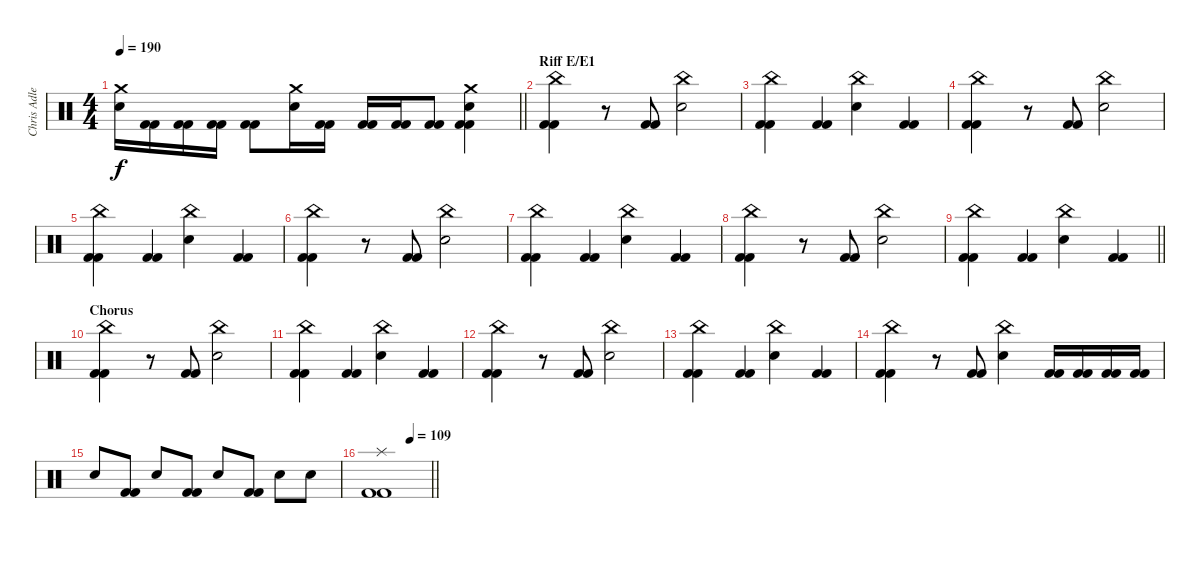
\track ("Chris Adler" "Chris Adle") {instrument percussion}
\staff {score}
\articulation defaults
\ts (4 4)
\tempo 190
\clef neutral
\barLineRight lightlight
\ks c
("Crash medium (hit)" "Snare (hit) 2").16{dy f} ("Kick (hit) 2" "Kick (hit) 2").16 ("Kick (hit) 2" "Kick (hit) 2").16 ("Kick (hit) 2" "Kick (hit) 2").16 ("Kick (hit) 2" "Kick (hit) 2").8 ("Crash medium (hit)" "Snare (hit) 2").16 ("Kick (hit) 2" "Kick (hit) 2").16 ("Kick (hit) 2" "Kick (hit) 2").16 ("Kick (hit) 2" "Kick (hit) 2").16 ("Kick (hit) 2" "Kick (hit) 2").8 ("Crash medium (hit)" "Snare (hit) 2" "Kick (hit) 2" "Kick (hit) 2").4 |
\section ("" "Riff E/E1")
("China (hit)" "Kick (hit) 2" "Kick (hit) 2").4 r.8 ("Kick (hit) 2" "Kick (hit) 2").8 ("China (hit)" "Snare (hit) 2").2 |
("China (hit)" "Kick (hit) 2" "Kick (hit) 2").4 ("Kick (hit) 2" "Kick (hit) 2").4 ("China (hit)" "Snare (hit) 2").4 ("Kick (hit) 2" "Kick (hit) 2").4 |
("China (hit)" "Kick (hit) 2" "Kick (hit) 2").4 r.8 ("Kick (hit) 2" "Kick (hit) 2").8 ("China (hit)" "Snare (hit) 2").2 |
("China (hit)" "Kick (hit) 2" "Kick (hit) 2").4 ("Kick (hit) 2" "Kick (hit) 2").4 ("China (hit)" "Snare (hit) 2").4 ("Kick (hit) 2" "Kick (hit) 2").4 |
("China (hit)" "Kick (hit) 2" "Kick (hit) 2").4 r.8 ("Kick (hit) 2" "Kick (hit) 2").8 ("China (hit)" "Snare (hit) 2").2 |
("China (hit)" "Kick (hit) 2" "Kick (hit) 2").4 ("Kick (hit) 2" "Kick (hit) 2").4 ("China (hit)" "Snare (hit) 2").4 ("Kick (hit) 2" "Kick (hit) 2").4 |
("China (hit)" "Kick (hit) 2" "Kick (hit) 2").4 r.8 ("Kick (hit) 2" "Kick (hit) 2").8 ("China (hit)" "Snare (hit) 2").2 |
\barLineRight lightlight
("China (hit)" "Kick (hit) 2" "Kick (hit) 2").4 ("Kick (hit) 2" "Kick (hit) 2").4 ("China (hit)" "Snare (hit) 2").4 ("Kick (hit) 2" "Kick (hit) 2").4 |
\section ("" "Chorus")
("China (hit)" "Kick (hit) 2" "Kick (hit) 2").4 r.8 ("Kick (hit) 2" "Kick (hit) 2").8 ("China (hit)" "Snare (hit) 2").2 |
("China (hit)" "Kick (hit) 2" "Kick (hit) 2").4 ("Kick (hit) 2" "Kick (hit) 2").4 ("China (hit)" "Snare (hit) 2").4 ("Kick (hit) 2" "Kick (hit) 2").4 |
("China (hit)" "Kick (hit) 2" "Kick (hit) 2").4 r.8 ("Kick (hit) 2" "Kick (hit) 2").8 ("China (hit)" "Snare (hit) 2").2 |
("China (hit)" "Kick (hit) 2" "Kick (hit) 2").4 ("Kick (hit) 2" "Kick (hit) 2").4 ("China (hit)" "Snare (hit) 2").4 ("Kick (hit) 2" "Kick (hit) 2").4 |
("China (hit)" "Kick (hit) 2" "Kick (hit) 2").4 r.8 ("Kick (hit) 2" "Kick (hit) 2").8 ("China (hit)" "Snare (hit) 2").4 ("Kick (hit) 2" "Kick (hit) 2").16 ("Kick (hit) 2" "Kick (hit) 2").16 ("Kick (hit) 2" "Kick (hit) 2").16 ("Kick (hit) 2" "Kick (hit) 2").16 |
"Snare (hit) 2".8 ("Kick (hit) 2" "Kick (hit) 2").8 "Snare (hit) 2".8 ("Kick (hit) 2" "Kick (hit) 2").8 "Snare (hit) 2".8 ("Kick (hit) 2" "Kick (hit) 2").8 "Snare (hit) 2".8 "Snare (hit) 2".8 |
\tempo (109 0.625)
\barLineRight lightlight
("Splash (hit)" "Kick (hit) 2" "Kick (hit) 2").1
